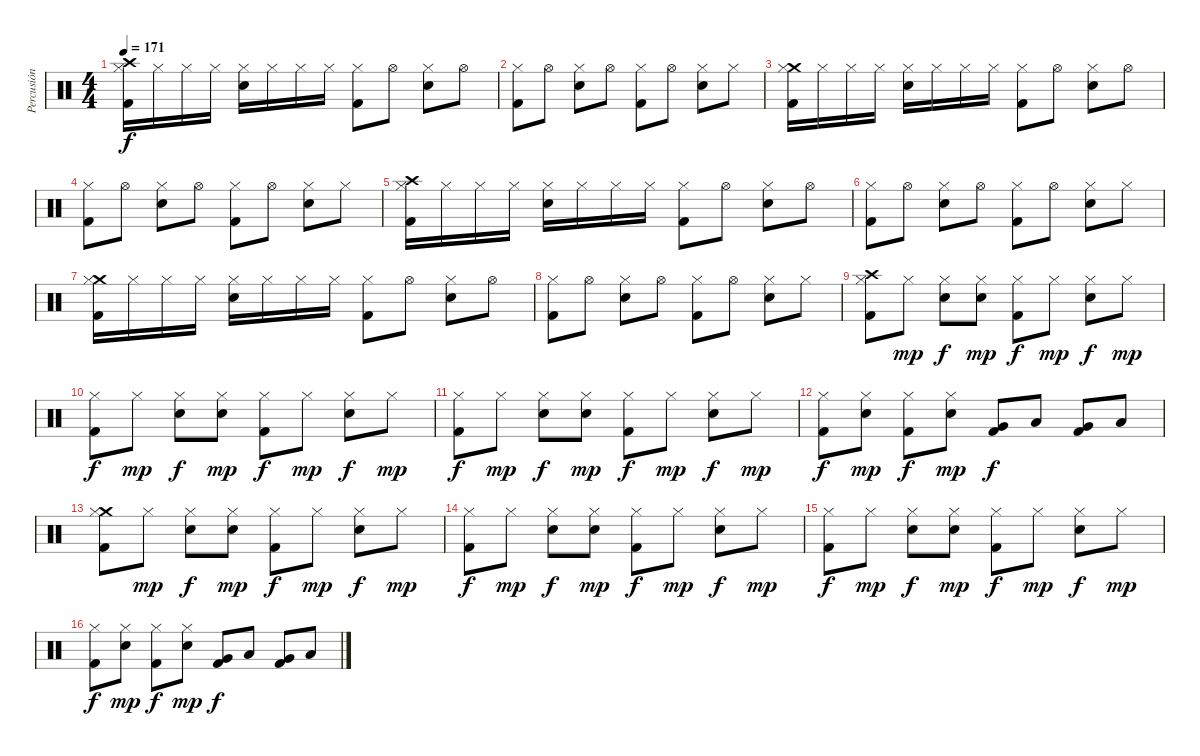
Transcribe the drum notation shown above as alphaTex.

\track ("Percusión" "Percusión") {instrument percussion}
\staff {score}
\articulation defaults
\ts (4 4)
\tempo 171
\clef neutral
\ks c
("Crash high (hit)" "Hi-Hat (closed)" "Kick (hit) 2").16{dy f} "Hi-Hat (closed)".16 "Hi-Hat (closed)".16 "Hi-Hat (closed)".16 ("Hi-Hat (closed)" "Electric Snare (hit)").16 "Hi-Hat (closed)".16 "Hi-Hat (closed)".16 "Hi-Hat (closed)".16 ("Hi-Hat (closed)" "Kick (hit) 2").8 "Hi-Hat (open)".8 ("Hi-Hat (closed)" "Electric Snare (hit)").8 "Hi-Hat (open)".8 |
("Hi-Hat (closed)" "Kick (hit) 2").8 "Hi-Hat (open)".8 ("Hi-Hat (closed)" "Electric Snare (hit)").8 "Hi-Hat (open)".8 ("Hi-Hat (closed)" "Kick (hit) 2").8 "Hi-Hat (open)".8 ("Hi-Hat (closed)" "Electric Snare (hit)").8 "Hi-Hat (closed)".8 |
("Crash medium (hit)" "Hi-Hat (closed)" "Kick (hit) 2").16 "Hi-Hat (closed)".16 "Hi-Hat (closed)".16 "Hi-Hat (closed)".16 ("Hi-Hat (closed)" "Electric Snare (hit)").16 "Hi-Hat (closed)".16 "Hi-Hat (closed)".16 "Hi-Hat (closed)".16 ("Hi-Hat (closed)" "Kick (hit) 2").8 "Hi-Hat (open)".8 ("Hi-Hat (closed)" "Electric Snare (hit)").8 "Hi-Hat (open)".8 |
("Hi-Hat (closed)" "Kick (hit) 2").8 "Hi-Hat (open)".8 ("Hi-Hat (closed)" "Electric Snare (hit)").8 "Hi-Hat (open)".8 ("Hi-Hat (closed)" "Kick (hit) 2").8 "Hi-Hat (open)".8 ("Hi-Hat (closed)" "Electric Snare (hit)").8 "Hi-Hat (closed)".8 |
("Crash high (hit)" "Hi-Hat (closed)" "Kick (hit) 2").16 "Hi-Hat (closed)".16 "Hi-Hat (closed)".16 "Hi-Hat (closed)".16 ("Hi-Hat (closed)" "Electric Snare (hit)").16 "Hi-Hat (closed)".16 "Hi-Hat (closed)".16 "Hi-Hat (closed)".16 ("Hi-Hat (closed)" "Kick (hit) 2").8 "Hi-Hat (open)".8 ("Hi-Hat (closed)" "Electric Snare (hit)").8 "Hi-Hat (open)".8 |
("Hi-Hat (closed)" "Kick (hit) 2").8 "Hi-Hat (open)".8 ("Hi-Hat (closed)" "Electric Snare (hit)").8 "Hi-Hat (open)".8 ("Hi-Hat (closed)" "Kick (hit) 2").8 "Hi-Hat (open)".8 ("Hi-Hat (closed)" "Electric Snare (hit)").8 "Hi-Hat (closed)".8 |
("Crash medium (hit)" "Hi-Hat (closed)" "Kick (hit) 2").16 "Hi-Hat (closed)".16 "Hi-Hat (closed)".16 "Hi-Hat (closed)".16 ("Hi-Hat (closed)" "Electric Snare (hit)").16 "Hi-Hat (closed)".16 "Hi-Hat (closed)".16 "Hi-Hat (closed)".16 ("Hi-Hat (closed)" "Kick (hit) 2").8 "Hi-Hat (open)".8 ("Hi-Hat (closed)" "Electric Snare (hit)").8 "Hi-Hat (open)".8 |
("Hi-Hat (closed)" "Kick (hit) 2").8 "Hi-Hat (open)".8 ("Hi-Hat (closed)" "Electric Snare (hit)").8 "Hi-Hat (open)".8 ("Hi-Hat (closed)" "Kick (hit) 2").8 "Hi-Hat (open)".8 ("Hi-Hat (closed)" "Electric Snare (hit)").8 "Hi-Hat (closed)".8 |
("Crash high (hit)" "Hi-Hat (closed)" "Kick (hit) 2").8 "Hi-Hat (closed)".8{dy mp} ("Hi-Hat (closed)" "Electric Snare (hit)").8{dy f} ("Hi-Hat (closed)" "Electric Snare (hit)").8{dy mp} ("Hi-Hat (closed)" "Kick (hit) 2").8{dy f} "Hi-Hat (closed)".8{dy mp} ("Hi-Hat (closed)" "Electric Snare (hit)").8{dy f} "Hi-Hat (closed)".8{dy mp} |
("Hi-Hat (closed)" "Kick (hit) 2").8{dy f} "Hi-Hat (closed)".8{dy mp} ("Hi-Hat (closed)" "Electric Snare (hit)").8{dy f} ("Hi-Hat (closed)" "Electric Snare (hit)").8{dy mp} ("Hi-Hat (closed)" "Kick (hit) 2").8{dy f} "Hi-Hat (closed)".8{dy mp} ("Hi-Hat (closed)" "Electric Snare (hit)").8{dy f} "Hi-Hat (closed)".8{dy mp} |
("Hi-Hat (closed)" "Kick (hit) 2").8{dy f} "Hi-Hat (closed)".8{dy mp} ("Hi-Hat (closed)" "Electric Snare (hit)").8{dy f} ("Hi-Hat (closed)" "Electric Snare (hit)").8{dy mp} ("Hi-Hat (closed)" "Kick (hit) 2").8{dy f} "Hi-Hat (closed)".8{dy mp} ("Hi-Hat (closed)" "Electric Snare (hit)").8{dy f} "Hi-Hat (closed)".8{dy mp} |
("Hi-Hat (closed)" "Kick (hit) 2").8{dy f} ("Hi-Hat (closed)" "Electric Snare (hit)").8{dy mp} ("Hi-Hat (closed)" "Kick (hit) 2").8{dy f} ("Hi-Hat (closed)" "Electric Snare (hit)").8{dy mp} ("Very Low Tom (hit)" "Kick (hit) 2").8{dy f} "Low Tom (hit)".8 ("Very Low Tom (hit)" "Kick (hit) 2").8 "Low Floor Tom (hit)".8 |
("Crash medium (hit)" "Hi-Hat (closed)" "Kick (hit) 2").8 "Hi-Hat (closed)".8{dy mp} ("Hi-Hat (closed)" "Electric Snare (hit)").8{dy f} ("Hi-Hat (closed)" "Electric Snare (hit)").8{dy mp} ("Hi-Hat (closed)" "Kick (hit) 2").8{dy f} "Hi-Hat (closed)".8{dy mp} ("Hi-Hat (closed)" "Electric Snare (hit)").8{dy f} "Hi-Hat (closed)".8{dy mp} |
("Hi-Hat (closed)" "Kick (hit) 2").8{dy f} "Hi-Hat (closed)".8{dy mp} ("Hi-Hat (closed)" "Electric Snare (hit)").8{dy f} ("Hi-Hat (closed)" "Electric Snare (hit)").8{dy mp} ("Hi-Hat (closed)" "Kick (hit) 2").8{dy f} "Hi-Hat (closed)".8{dy mp} ("Hi-Hat (closed)" "Electric Snare (hit)").8{dy f} "Hi-Hat (closed)".8{dy mp} |
("Hi-Hat (closed)" "Kick (hit) 2").8{dy f} "Hi-Hat (closed)".8{dy mp} ("Hi-Hat (closed)" "Electric Snare (hit)").8{dy f} ("Hi-Hat (closed)" "Electric Snare (hit)").8{dy mp} ("Hi-Hat (closed)" "Kick (hit) 2").8{dy f} "Hi-Hat (closed)".8{dy mp} ("Hi-Hat (closed)" "Electric Snare (hit)").8{dy f} "Hi-Hat (closed)".8{dy mp} |
("Hi-Hat (closed)" "Kick (hit) 2").8{dy f} ("Hi-Hat (closed)" "Electric Snare (hit)").8{dy mp} ("Hi-Hat (closed)" "Kick (hit) 2").8{dy f} ("Hi-Hat (closed)" "Electric Snare (hit)").8{dy mp} ("Very Low Tom (hit)" "Kick (hit) 2").8{dy f} "Low Tom (hit)".8 ("Very Low Tom (hit)" "Kick (hit) 2").8 "Low Tom (hit)".8
